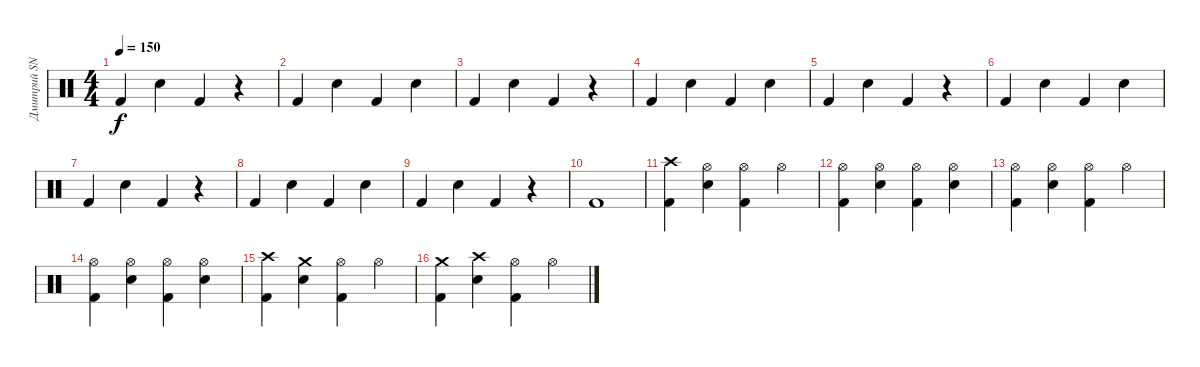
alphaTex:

\track ("Дмитрий SNAKE Хакимов" "Дмитрий SN") {instrument percussion}
\staff {score}
\articulation defaults
\ts (4 4)
\tempo 150
\clef neutral
\ks c "Kick (hit) 2".4{dy f} "Snare (hit) 2".4 "Kick (hit) 2".4
r.4 |
"Kick (hit) 2".4 "Snare (hit) 2".4 "Kick (hit) 2".4 "Snare (hit) 2".4 |
"Kick (hit) 2".4 "Snare (hit) 2".4 "Kick (hit) 2".4 r.4 |
"Kick (hit) 2".4 "Snare (hit) 2".4 "Kick (hit) 2".4 "Snare (hit) 2".4 |
"Kick (hit) 2".4 "Snare (hit) 2".4 "Kick (hit) 2".4 r.4 |
"Kick (hit) 2".4 "Snare (hit) 2".4 "Kick (hit) 2".4 "Snare (hit) 2".4 |
"Kick (hit) 2".4 "Snare (hit) 2".4 "Kick (hit) 2".4 r.4 |
"Kick (hit) 2".4 "Snare (hit) 2".4 "Kick (hit) 2".4 "Snare (hit) 2".4 |
"Kick (hit) 2".4 "Snare (hit) 2".4 "Kick (hit) 2".4 r.4 |
"Kick (hit) 2".1 |
("Crash high (hit)" "Kick (hit) 2").4 ("Hi-Hat (open)" "Snare (hit) 2").4 ("Hi-Hat (open)" "Kick (hit) 2").4 "Hi-Hat (open)".4 |
("Hi-Hat (open)" "Kick (hit) 2").4 ("Hi-Hat (open)" "Snare (hit) 2").4 ("Hi-Hat (open)" "Kick (hit) 2").4 ("Hi-Hat (open)" "Snare (hit) 2").4 |
("Hi-Hat (open)" "Kick (hit) 2").4 ("Hi-Hat (open)" "Snare (hit) 2").4 ("Hi-Hat (open)" "Kick (hit) 2").4 "Hi-Hat (open)".4 |
("Hi-Hat (open)" "Kick (hit) 2").4 ("Hi-Hat (open)" "Snare (hit) 2").4 ("Hi-Hat (open)" "Kick (hit) 2").4 ("Hi-Hat (open)" "Snare (hit) 2").4 |
("Crash high (hit)" "Kick (hit) 2").4 ("Crash medium (hit)" "Snare (hit) 2").4 ("Hi-Hat (open)" "Kick (hit) 2").4 "Hi-Hat (open)".4 |
("Crash medium (hit)" "Kick (hit) 2").4 ("Crash high (hit)" "Snare (hit) 2").4 ("Hi-Hat (open)" "Kick (hit) 2").4 "Hi-Hat (open)".4
